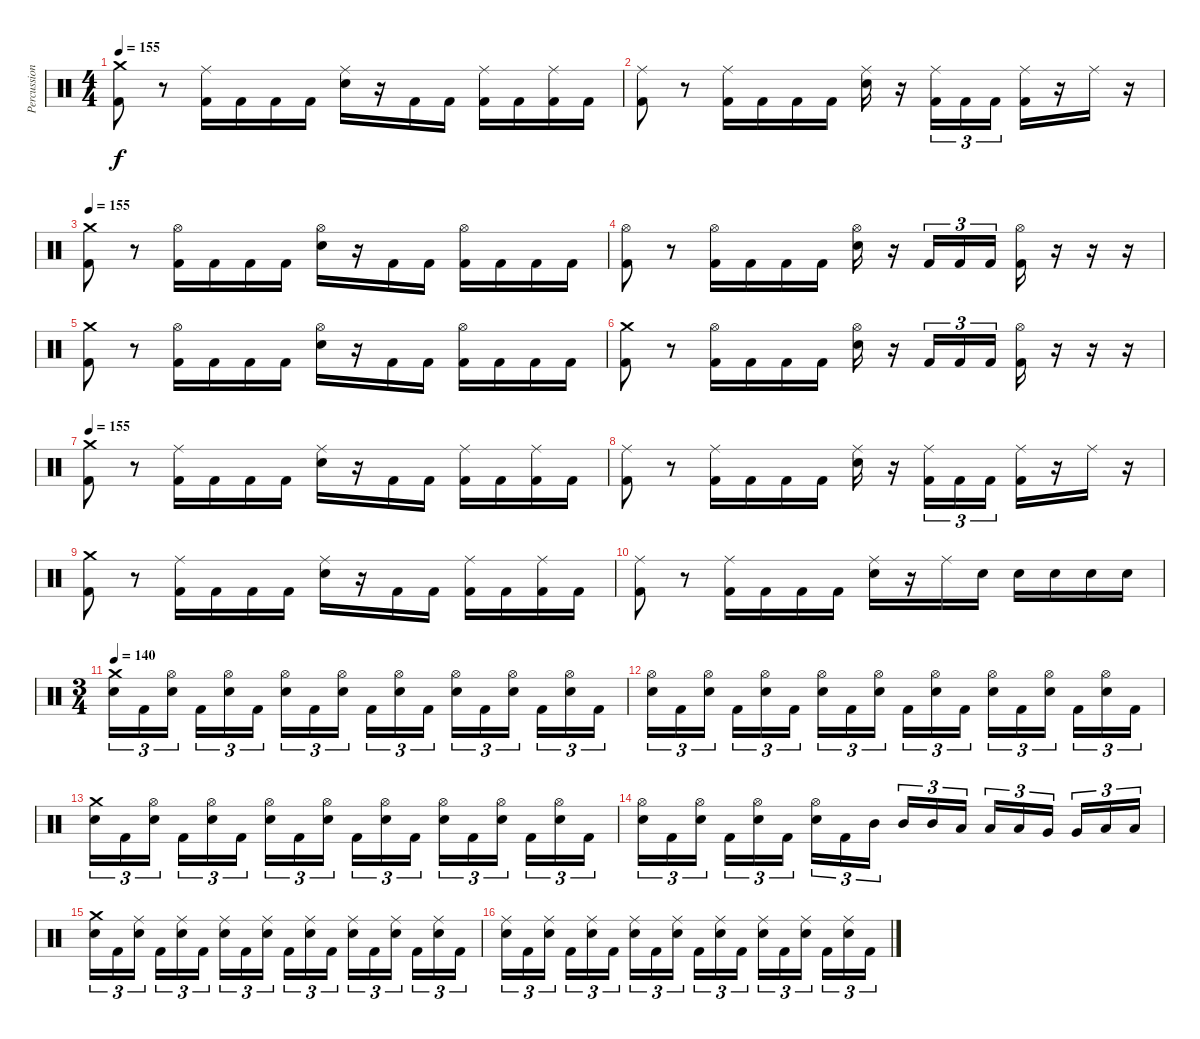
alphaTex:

\track ("Percussion" "Percussion") {instrument percussion}
\staff {score}
\articulation defaults
\ts (4 4)
\tempo 155
\clef neutral
\ks c
("Crash medium (hit)" "Kick (hit) 2").8{dy f} r.8 ("Ride (middle)" "Kick (hit) 2").16 "Kick (hit) 2".16 "Kick (hit) 2".16 "Kick (hit) 2".16 ("Ride (middle)" "Electric Snare (hit)").16 r.16 "Kick (hit) 2".16 "Kick (hit) 2".16 ("Ride (middle)" "Kick (hit) 2").16 "Kick (hit) 2".16 ("Ride (middle)" "Kick (hit) 2").16 "Kick (hit) 2".16 |
("Ride (middle)" "Kick (hit) 2").8 r.8 ("Ride (middle)" "Kick (hit) 2").16 "Kick (hit) 2".16 "Kick (hit) 2".16 "Kick (hit) 2".16 ("Ride (middle)" "Electric Snare (hit)").16 r.16 ("Ride (middle)" "Kick (hit) 2").16{tu (3 2)} "Kick (hit) 2".16{tu (3 2)} "Kick (hit) 2".16{tu (3 2)} ("Ride (middle)" "Kick (hit) 2").16 r.16 "Ride (middle)".16 r.16 |
\tempo 155
("Crash medium (hit)" "Kick (hit) 2").8 r.8 ("Hi-Hat (open)" "Kick (hit) 2").16 "Kick (hit) 2".16 "Kick (hit) 2".16 "Kick (hit) 2".16 ("Hi-Hat (open)" "Electric Snare (hit)").16 r.16 "Kick (hit) 2".16 "Kick (hit) 2".16 ("Hi-Hat (open)" "Kick (hit) 2").16 "Kick (hit) 2".16 "Kick (hit) 2".16 "Kick (hit) 2".16 |
("Hi-Hat (open)" "Kick (hit) 2").8 r.8 ("Hi-Hat (open)" "Kick (hit) 2").16 "Kick (hit) 2".16 "Kick (hit) 2".16 "Kick (hit) 2".16 ("Hi-Hat (open)" "Electric Snare (hit)").16 r.16 "Kick (hit) 2".16{tu (3 2)} "Kick (hit) 2".16{tu (3 2)} "Kick (hit) 2".16{tu (3 2)} ("Hi-Hat (open)" "Kick (hit) 2").16 r.16 r.16 r.16 |
("Crash medium (hit)" "Kick (hit) 2").8 r.8 ("Hi-Hat (open)" "Kick (hit) 2").16 "Kick (hit) 2".16 "Kick (hit) 2".16 "Kick (hit) 2".16 ("Hi-Hat (open)" "Electric Snare (hit)").16 r.16 "Kick (hit) 2".16 "Kick (hit) 2".16 ("Hi-Hat (open)" "Kick (hit) 2").16 "Kick (hit) 2".16 "Kick (hit) 2".16 "Kick (hit) 2".16 |
("Crash medium (hit)" "Kick (hit) 2").8 r.8 ("Hi-Hat (open)" "Kick (hit) 2").16 "Kick (hit) 2".16 "Kick (hit) 2".16 "Kick (hit) 2".16 ("Hi-Hat (open)" "Electric Snare (hit)").16 r.16 "Kick (hit) 2".16{tu (3 2)} "Kick (hit) 2".16{tu (3 2)} "Kick (hit) 2".16{tu (3 2)} ("Hi-Hat (open)" "Kick (hit) 2").16 r.16 r.16 r.16 |
\tempo 155
("Crash medium (hit)" "Kick (hit) 2").8 r.8 ("Ride (middle)" "Kick (hit) 2").16 "Kick (hit) 2".16 "Kick (hit) 2".16 "Kick (hit) 2".16 ("Ride (middle)" "Electric Snare (hit)").16 r.16 "Kick (hit) 2".16 "Kick (hit) 2".16 ("Ride (middle)" "Kick (hit) 2").16 "Kick (hit) 2".16 ("Ride (middle)" "Kick (hit) 2").16 "Kick (hit) 2".16 |
("Ride (middle)" "Kick (hit) 2").8 r.8 ("Ride (middle)" "Kick (hit) 2").16 "Kick (hit) 2".16 "Kick (hit) 2".16 "Kick (hit) 2".16 ("Ride (middle)" "Electric Snare (hit)").16 r.16 ("Ride (middle)" "Kick (hit) 2").16{tu (3 2)} "Kick (hit) 2".16{tu (3 2)} "Kick (hit) 2".16{tu (3 2)} ("Ride (middle)" "Kick (hit) 2").16 r.16 "Ride (middle)".16 r.16 |
("Crash medium (hit)" "Kick (hit) 2").8 r.8 ("Ride (middle)" "Kick (hit) 2").16 "Kick (hit) 2".16 "Kick (hit) 2".16 "Kick (hit) 2".16 ("Ride (middle)" "Electric Snare (hit)").16 r.16 "Kick (hit) 2".16 "Kick (hit) 2".16 ("Ride (middle)" "Kick (hit) 2").16 "Kick (hit) 2".16 ("Ride (middle)" "Kick (hit) 2").16 "Kick (hit) 2".16 |
("Ride (middle)" "Kick (hit) 2").8 r.8 ("Ride (middle)" "Kick (hit) 2").16 "Kick (hit) 2".16 "Kick (hit) 2".16 "Kick (hit) 2".16 ("Ride (middle)" "Electric Snare (hit)").16 r.16 "Ride (middle)".16 "Electric Snare (hit)".16 "Electric Snare (hit)".16 "Electric Snare (hit)".16 "Electric Snare (hit)".16 "Electric Snare (hit)".16 |
\ts (3 4)
\tempo 140
("Crash medium (hit)" "Electric Snare (hit)").16{tu (3 2)} "Kick (hit) 2".16{tu (3 2)} ("Hi-Hat (open)" "Electric Snare (hit)").16{tu (3 2) beam splitsecondary} "Kick (hit) 2".16{tu (3 2)} ("Hi-Hat (open)" "Electric Snare (hit)").16{tu (3 2)} "Kick (hit) 2".16{tu (3 2)} ("Hi-Hat (open)" "Electric Snare (hit)").16{tu (3 2)} "Kick (hit) 2".16{tu (3 2)} ("Hi-Hat (open)" "Electric Snare (hit)").16{tu (3 2) beam splitsecondary} "Kick (hit) 2".16{tu (3 2)} ("Hi-Hat (open)" "Electric Snare (hit)").16{tu (3 2)} "Kick (hit) 2".16{tu (3 2)} ("Hi-Hat (open)" "Electric Snare (hit)").16{tu (3 2)} "Kick (hit) 2".16{tu (3 2)} ("Hi-Hat (open)" "Electric Snare (hit)").16{tu (3 2) beam splitsecondary} "Kick (hit) 2".16{tu (3 2)} ("Hi-Hat (open)" "Electric Snare (hit)").16{tu (3 2)} "Kick (hit) 2".16{tu (3 2)} |
("Hi-Hat (open)" "Electric Snare (hit)").16{tu (3 2)} "Kick (hit) 2".16{tu (3 2)} ("Hi-Hat (open)" "Electric Snare (hit)").16{tu (3 2) beam splitsecondary} "Kick (hit) 2".16{tu (3 2)} ("Hi-Hat (open)" "Electric Snare (hit)").16{tu (3 2)} "Kick (hit) 2".16{tu (3 2)} ("Hi-Hat (open)" "Electric Snare (hit)").16{tu (3 2)} "Kick (hit) 2".16{tu (3 2)} ("Hi-Hat (open)" "Electric Snare (hit)").16{tu (3 2) beam splitsecondary} "Kick (hit) 2".16{tu (3 2)} ("Hi-Hat (open)" "Electric Snare (hit)").16{tu (3 2)} "Kick (hit) 2".16{tu (3 2)} ("Hi-Hat (open)" "Electric Snare (hit)").16{tu (3 2)} "Kick (hit) 2".16{tu (3 2)} ("Hi-Hat (open)" "Electric Snare (hit)").16{tu (3 2) beam splitsecondary} "Kick (hit) 2".16{tu (3 2)} ("Hi-Hat (open)" "Electric Snare (hit)").16{tu (3 2)} "Kick (hit) 2".16{tu (3 2)} |
("Crash medium (hit)" "Electric Snare (hit)").16{tu (3 2)} "Kick (hit) 2".16{tu (3 2)} ("Hi-Hat (open)" "Electric Snare (hit)").16{tu (3 2) beam splitsecondary} "Kick (hit) 2".16{tu (3 2)} ("Hi-Hat (open)" "Electric Snare (hit)").16{tu (3 2)} "Kick (hit) 2".16{tu (3 2)} ("Hi-Hat (open)" "Electric Snare (hit)").16{tu (3 2)} "Kick (hit) 2".16{tu (3 2)} ("Hi-Hat (open)" "Electric Snare (hit)").16{tu (3 2) beam splitsecondary} "Kick (hit) 2".16{tu (3 2)} ("Hi-Hat (open)" "Electric Snare (hit)").16{tu (3 2)} "Kick (hit) 2".16{tu (3 2)} ("Hi-Hat (open)" "Electric Snare (hit)").16{tu (3 2)} "Kick (hit) 2".16{tu (3 2)} ("Hi-Hat (open)" "Electric Snare (hit)").16{tu (3 2) beam splitsecondary} "Kick (hit) 2".16{tu (3 2)} ("Hi-Hat (open)" "Electric Snare (hit)").16{tu (3 2)} "Kick (hit) 2".16{tu (3 2)} |
("Hi-Hat (open)" "Electric Snare (hit)").16{tu (3 2)} "Kick (hit) 2".16{tu (3 2)} ("Hi-Hat (open)" "Electric Snare (hit)").16{tu (3 2) beam splitsecondary} "Kick (hit) 2".16{tu (3 2)} ("Hi-Hat (open)" "Electric Snare (hit)").16{tu (3 2)} "Kick (hit) 2".16{tu (3 2)} ("Hi-Hat (open)" "Electric Snare (hit)").16{tu (3 2)} "Kick (hit) 2".16{tu (3 2)} "Mid Tom (hit)".16{tu (3 2) beam splitsecondary} "Mid Tom (hit)".16{tu (3 2)} "Mid Tom (hit)".16{tu (3 2)} "Low Tom (hit)".16{tu (3 2)} "Low Tom (hit)".16{tu (3 2)} "Low Tom (hit)".16{tu (3 2)} "Very Low Tom (hit)".16{tu (3 2) beam splitsecondary} "Very Low Tom (hit)".16{tu (3 2)} "Low Floor Tom (hit)".16{tu (3 2)} "Low Floor Tom (hit)".16{tu (3 2)} |
("Crash medium (hit)" "Electric Snare (hit)").16{tu (3 2)} "Kick (hit) 2".16{tu (3 2)} ("Ride (middle)" "Electric Snare (hit)").16{tu (3 2) beam splitsecondary} "Kick (hit) 2".16{tu (3 2)} ("Ride (middle)" "Electric Snare (hit)").16{tu (3 2)} "Kick (hit) 2".16{tu (3 2)} ("Ride (middle)" "Electric Snare (hit)").16{tu (3 2)} "Kick (hit) 2".16{tu (3 2)} ("Ride (middle)" "Electric Snare (hit)").16{tu (3 2) beam splitsecondary} "Kick (hit) 2".16{tu (3 2)} ("Ride (middle)" "Electric Snare (hit)").16{tu (3 2)} "Kick (hit) 2".16{tu (3 2)} ("Ride (middle)" "Electric Snare (hit)").16{tu (3 2)} "Kick (hit) 2".16{tu (3 2)} ("Ride (middle)" "Electric Snare (hit)").16{tu (3 2) beam splitsecondary} "Kick (hit) 2".16{tu (3 2)} ("Ride (middle)" "Electric Snare (hit)").16{tu (3 2)} "Kick (hit) 2".16{tu (3 2)} |
("Ride (middle)" "Electric Snare (hit)").16{tu (3 2)} "Kick (hit) 2".16{tu (3 2)} ("Ride (middle)" "Electric Snare (hit)").16{tu (3 2) beam splitsecondary} "Kick (hit) 2".16{tu (3 2)} ("Ride (middle)" "Electric Snare (hit)").16{tu (3 2)} "Kick (hit) 2".16{tu (3 2)} ("Ride (middle)" "Electric Snare (hit)").16{tu (3 2)} "Kick (hit) 2".16{tu (3 2)} ("Ride (middle)" "Electric Snare (hit)").16{tu (3 2) beam splitsecondary} "Kick (hit) 2".16{tu (3 2)} ("Ride (middle)" "Electric Snare (hit)").16{tu (3 2)} "Kick (hit) 2".16{tu (3 2)} ("Ride (middle)" "Electric Snare (hit)").16{tu (3 2)} "Kick (hit) 2".16{tu (3 2)} ("Ride (middle)" "Electric Snare (hit)").16{tu (3 2) beam splitsecondary} "Kick (hit) 2".16{tu (3 2)} ("Ride (middle)" "Electric Snare (hit)").16{tu (3 2)} "Kick (hit) 2".16{tu (3 2)}
